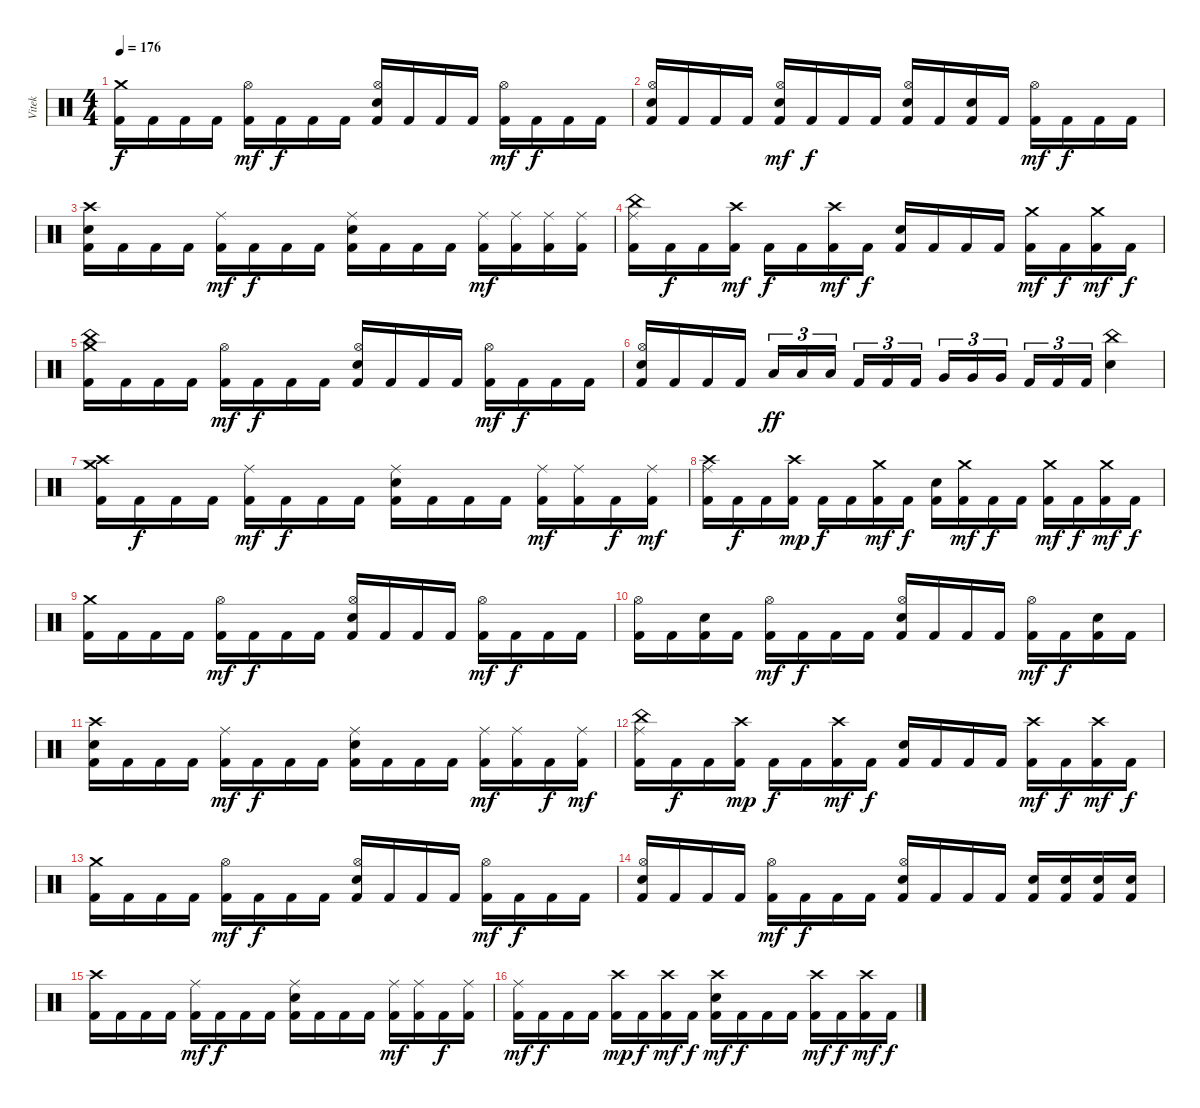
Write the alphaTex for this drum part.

\track ("Vitek" "Vitek") {instrument percussion}
\staff {score}
\articulation defaults
\ts (4 4)
\tempo 176
\clef neutral
\ks c
("Crash medium (hit)" "Kick (hit) 2").16{dy f} "Kick (hit) 2".16 "Kick (hit) 2".16 "Kick (hit) 2".16 ("Hi-Hat (open)" "Kick (hit) 2").16{dy mf} "Kick (hit) 2".16{dy f} "Kick (hit) 2".16 "Kick (hit) 2".16 ("Hi-Hat (open)" "Electric Snare (hit)" "Kick (hit) 2").16 "Kick (hit) 2".16 "Kick (hit) 2".16 "Kick (hit) 2".16 ("Hi-Hat (open)" "Kick (hit) 2").16{dy mf} "Kick (hit) 2".16{dy f} "Kick (hit) 2".16 "Kick (hit) 2".16 |
("Hi-Hat (open)" "Electric Snare (hit)" "Kick (hit) 2").16 "Kick (hit) 2".16 "Kick (hit) 2".16 "Kick (hit) 2".16 ("Hi-Hat (open)" "Electric Snare (hit)" "Kick (hit) 2").16{dy mf} "Kick (hit) 2".16{dy f} "Kick (hit) 2".16 "Kick (hit) 2".16 ("Hi-Hat (open)" "Electric Snare (hit)" "Kick (hit) 2").16 "Kick (hit) 2".16 ("Electric Snare (hit)" "Kick (hit) 2").16 "Kick (hit) 2".16 ("Hi-Hat (open)" "Kick (hit) 2").16{dy mf} "Kick (hit) 2".16{dy f} "Kick (hit) 2".16 "Kick (hit) 2".16 |
("Crash high (hit)" "Electric Snare (hit)" "Kick (hit) 2").16 "Kick (hit) 2".16 "Kick (hit) 2".16 "Kick (hit) 2".16 ("Ride (middle)" "Kick (hit) 2").16{dy mf} "Kick (hit) 2".16{dy f} "Kick (hit) 2".16 "Kick (hit) 2".16 ("Ride (middle)" "Electric Snare (hit)" "Kick (hit) 2").16 "Kick (hit) 2".16 "Kick (hit) 2".16 "Kick (hit) 2".16 ("Ride (middle)" "Kick (hit) 2").16{dy mf} ("Ride (middle)" "Kick (hit) 2").16 ("Ride (middle)" "Kick (hit) 2").16 ("Ride (middle)" "Kick (hit) 2").16 |
("China (hit)" "Ride (middle)" "Kick (hit) 2").16 "Kick (hit) 2".16{dy f} "Kick (hit) 2".16 ("Crash high (hit)" "Kick (hit) 2").16{dy mf} "Kick (hit) 2".16{dy f} "Kick (hit) 2".16 ("Crash high (hit)" "Kick (hit) 2").16{dy mf} "Kick (hit) 2".16{dy f} ("Electric Snare (hit)" "Kick (hit) 2").16 "Kick (hit) 2".16 "Kick (hit) 2".16 "Kick (hit) 2".16 ("Crash medium (hit)" "Kick (hit) 2").16{dy mf} "Kick (hit) 2".16{dy f} ("Crash medium (hit)" "Kick (hit) 2").16{dy mf} "Kick (hit) 2".16{dy f} |
("China (hit)" "Crash medium (hit)" "Kick (hit) 2").16 "Kick (hit) 2".16 "Kick (hit) 2".16 "Kick (hit) 2".16 ("Hi-Hat (open)" "Kick (hit) 2").16{dy mf} "Kick (hit) 2".16{dy f} "Kick (hit) 2".16 "Kick (hit) 2".16 ("Hi-Hat (open)" "Electric Snare (hit)" "Kick (hit) 2").16 "Kick (hit) 2".16 "Kick (hit) 2".16 "Kick (hit) 2".16 ("Hi-Hat (open)" "Kick (hit) 2").16{dy mf} "Kick (hit) 2".16{dy f} "Kick (hit) 2".16 "Kick (hit) 2".16 |
("Hi-Hat (open)" "Electric Snare (hit)" "Kick (hit) 2").16 "Kick (hit) 2".16 "Kick (hit) 2".16 "Kick (hit) 2".16 "Low Tom (hit)".16{tu (3 2) dy ff} "Low Tom (hit)".16{tu (3 2)} "Low Tom (hit)".16{tu (3 2) beam splitsecondary} "Kick (hit) 2".16{tu (3 2)} "Kick (hit) 2".16{tu (3 2)} "Kick (hit) 2".16{tu (3 2)} "Very Low Tom (hit)".16{tu (3 2)} "Very Low Tom (hit)".16{tu (3 2)} "Very Low Tom (hit)".16{tu (3 2) beam splitsecondary} "Kick (hit) 2".16{tu (3 2)} "Kick (hit) 2".16{tu (3 2)} "Kick (hit) 2".16{tu (3 2)} ("China (hit)" "Electric Snare (hit)").4 |
("Crash high (hit)" "Crash medium (hit)" "Kick (hit) 2").16 "Kick (hit) 2".16{dy f} "Kick (hit) 2".16 "Kick (hit) 2".16 ("Ride (middle)" "Kick (hit) 2").16{dy mf} "Kick (hit) 2".16{dy f} "Kick (hit) 2".16 "Kick (hit) 2".16 ("Ride (middle)" "Electric Snare (hit)" "Kick (hit) 2").16 "Kick (hit) 2".16 "Kick (hit) 2".16 "Kick (hit) 2".16 ("Ride (middle)" "Kick (hit) 2").16{dy mf} ("Ride (middle)" "Kick (hit) 2").16 "Kick (hit) 2".16{dy f} ("Ride (middle)" "Kick (hit) 2").16{dy mf} |
("Crash high (hit)" "Ride (middle)" "Kick (hit) 2").16 "Kick (hit) 2".16{dy f} "Kick (hit) 2".16 ("Crash high (hit)" "Kick (hit) 2").16{dy mp} "Kick (hit) 2".16{dy f} "Kick (hit) 2".16 ("Crash medium (hit)" "Kick (hit) 2").16{dy mf} "Kick (hit) 2".16{dy f} ("Electric Snare (hit)" "Kick (hit) 2").16 ("Crash medium (hit)" "Kick (hit) 2").16{dy mf} "Kick (hit) 2".16{dy f} "Kick (hit) 2".16 ("Crash medium (hit)" "Kick (hit) 2").16{dy mf} "Kick (hit) 2".16{dy f} ("Crash medium (hit)" "Kick (hit) 2").16{dy mf} "Kick (hit) 2".16{dy f} |
("Crash medium (hit)" "Kick (hit) 2").16 "Kick (hit) 2".16 "Kick (hit) 2".16 "Kick (hit) 2".16 ("Hi-Hat (open)" "Kick (hit) 2").16{dy mf} "Kick (hit) 2".16{dy f} "Kick (hit) 2".16 "Kick (hit) 2".16 ("Hi-Hat (open)" "Electric Snare (hit)" "Kick (hit) 2").16 "Kick (hit) 2".16 "Kick (hit) 2".16 "Kick (hit) 2".16 ("Hi-Hat (open)" "Kick (hit) 2").16{dy mf} "Kick (hit) 2".16{dy f} "Kick (hit) 2".16 "Kick (hit) 2".16 |
("Hi-Hat (open)" "Kick (hit) 2").16 "Kick (hit) 2".16 ("Electric Snare (hit)" "Kick (hit) 2").16 "Kick (hit) 2".16 ("Hi-Hat (open)" "Kick (hit) 2").16{dy mf} "Kick (hit) 2".16{dy f} "Kick (hit) 2".16 "Kick (hit) 2".16 ("Hi-Hat (open)" "Electric Snare (hit)" "Kick (hit) 2").16 "Kick (hit) 2".16 "Kick (hit) 2".16 "Kick (hit) 2".16 ("Hi-Hat (open)" "Kick (hit) 2").16{dy mf} "Kick (hit) 2".16{dy f} ("Electric Snare (hit)" "Kick (hit) 2").16 "Kick (hit) 2".16 |
("Crash high (hit)" "Electric Snare (hit)" "Kick (hit) 2").16 "Kick (hit) 2".16 "Kick (hit) 2".16 "Kick (hit) 2".16 ("Ride (middle)" "Kick (hit) 2").16{dy mf} "Kick (hit) 2".16{dy f} "Kick (hit) 2".16 "Kick (hit) 2".16 ("Ride (middle)" "Electric Snare (hit)" "Kick (hit) 2").16 "Kick (hit) 2".16 "Kick (hit) 2".16 "Kick (hit) 2".16 ("Ride (middle)" "Kick (hit) 2").16{dy mf} ("Ride (middle)" "Kick (hit) 2").16 "Kick (hit) 2".16{dy f} ("Ride (middle)" "Kick (hit) 2").16{dy mf} |
("China (hit)" "Ride (middle)" "Kick (hit) 2").16 "Kick (hit) 2".16{dy f} "Kick (hit) 2".16 ("Crash high (hit)" "Kick (hit) 2").16{dy mp} "Kick (hit) 2".16{dy f} "Kick (hit) 2".16 ("Crash high (hit)" "Kick (hit) 2").16{dy mf} "Kick (hit) 2".16{dy f} ("Electric Snare (hit)" "Kick (hit) 2").16 "Kick (hit) 2".16 "Kick (hit) 2".16 "Kick (hit) 2".16 ("Crash high (hit)" "Kick (hit) 2").16{dy mf} "Kick (hit) 2".16{dy f} ("Crash high (hit)" "Kick (hit) 2").16{dy mf} "Kick (hit) 2".16{dy f} |
("Crash medium (hit)" "Kick (hit) 2").16 "Kick (hit) 2".16 "Kick (hit) 2".16 "Kick (hit) 2".16 ("Hi-Hat (open)" "Kick (hit) 2").16{dy mf} "Kick (hit) 2".16{dy f} "Kick (hit) 2".16 "Kick (hit) 2".16 ("Hi-Hat (open)" "Electric Snare (hit)" "Kick (hit) 2").16 "Kick (hit) 2".16 "Kick (hit) 2".16 "Kick (hit) 2".16 ("Hi-Hat (open)" "Kick (hit) 2").16{dy mf} "Kick (hit) 2".16{dy f} "Kick (hit) 2".16 "Kick (hit) 2".16 |
("Hi-Hat (open)" "Electric Snare (hit)" "Kick (hit) 2").16 "Kick (hit) 2".16 "Kick (hit) 2".16 "Kick (hit) 2".16 ("Hi-Hat (open)" "Kick (hit) 2").16{dy mf} "Kick (hit) 2".16{dy f} "Kick (hit) 2".16 "Kick (hit) 2".16 ("Hi-Hat (open)" "Electric Snare (hit)" "Kick (hit) 2").16 "Kick (hit) 2".16 "Kick (hit) 2".16 "Kick (hit) 2".16 ("Electric Snare (hit)" "Kick (hit) 2").16 ("Electric Snare (hit)" "Kick (hit) 2").16 ("Electric Snare (hit)" "Kick (hit) 2").16 ("Electric Snare (hit)" "Kick (hit) 2").16 |
("Crash high (hit)" "Kick (hit) 2").16 "Kick (hit) 2".16 "Kick (hit) 2".16 "Kick (hit) 2".16 ("Ride (middle)" "Kick (hit) 2").16{dy mf} "Kick (hit) 2".16{dy f} "Kick (hit) 2".16 "Kick (hit) 2".16 ("Ride (middle)" "Electric Snare (hit)" "Kick (hit) 2").16 "Kick (hit) 2".16 "Kick (hit) 2".16 "Kick (hit) 2".16 ("Ride (middle)" "Kick (hit) 2").16{dy mf} ("Ride (middle)" "Kick (hit) 2").16 "Kick (hit) 2".16{dy f} ("Ride (middle)" "Kick (hit) 2").16 |
("Ride (middle)" "Kick (hit) 2").16{dy mf} "Kick (hit) 2".16{dy f} "Kick (hit) 2".16 "Kick (hit) 2".16 ("Crash high (hit)" "Kick (hit) 2").16{dy mp} "Kick (hit) 2".16{dy f} ("Crash high (hit)" "Kick (hit) 2").16{dy mf} "Kick (hit) 2".16{dy f} ("Crash high (hit)" "Electric Snare (hit)" "Kick (hit) 2").16{dy mf} "Kick (hit) 2".16{dy f} "Kick (hit) 2".16 "Kick (hit) 2".16 ("Crash high (hit)" "Kick (hit) 2").16{dy mf} "Kick (hit) 2".16{dy f} ("Crash high (hit)" "Kick (hit) 2").16{dy mf} "Kick (hit) 2".16{dy f}
